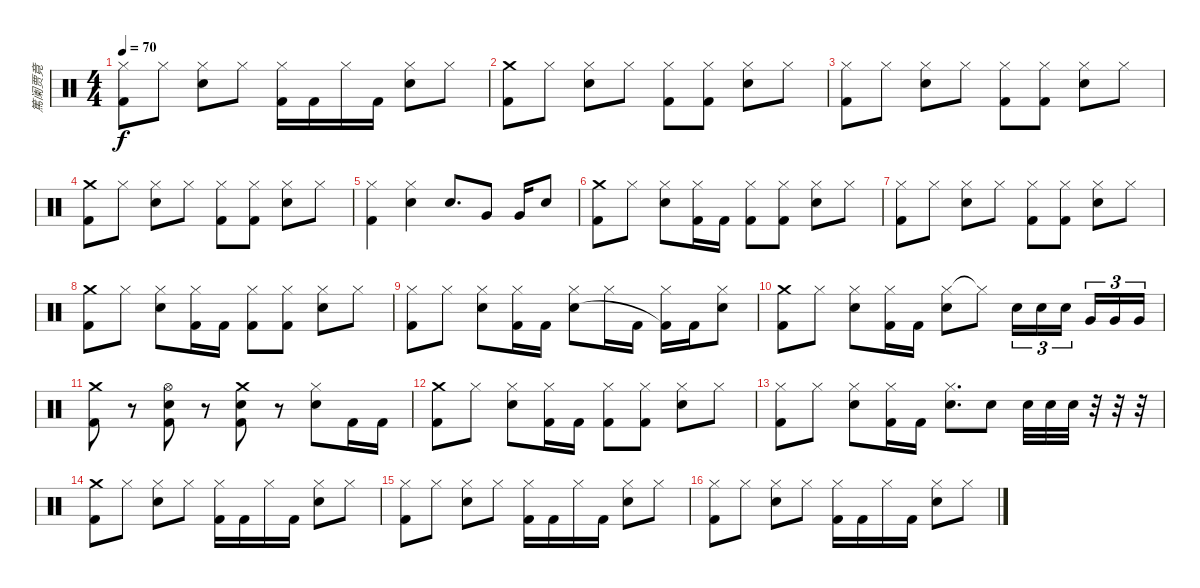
\track ("篤阑贾竟" "篤阑贾竟") {instrument percussion}
\staff {score}
\articulation defaults
\ts (4 4)
\tempo 70
\clef neutral
\ks c
("Hi-Hat (closed)" "Kick (hit) 2").8{dy f} "Hi-Hat (closed)".8 ("Hi-Hat (closed)" "Snare (hit) 2").8 "Hi-Hat (closed)".8 ("Hi-Hat (closed)" "Kick (hit) 2").16 "Kick (hit) 2".16 "Hi-Hat (closed)".16 "Kick (hit) 2".16 ("Hi-Hat (closed)" "Snare (hit) 2").8 "Hi-Hat (closed)".8 |
("Crash medium (hit)" "Kick (hit) 2").8 "Hi-Hat (closed)".8 ("Hi-Hat (closed)" "Snare (hit) 2").8 "Hi-Hat (closed)".8 ("Hi-Hat (closed)" "Kick (hit) 2").8 ("Hi-Hat (closed)" "Kick (hit) 2").8 ("Hi-Hat (closed)" "Snare (hit) 2").8 "Hi-Hat (closed)".8 |
("Hi-Hat (closed)" "Kick (hit) 2").8 "Hi-Hat (closed)".8 ("Hi-Hat (closed)" "Snare (hit) 2").8 "Hi-Hat (closed)".8 ("Hi-Hat (closed)" "Kick (hit) 2").8 ("Hi-Hat (closed)" "Kick (hit) 2").8 ("Hi-Hat (closed)" "Snare (hit) 2").8 "Hi-Hat (closed)".8 |
("Crash medium (hit)" "Kick (hit) 2").8 "Hi-Hat (closed)".8 ("Hi-Hat (closed)" "Snare (hit) 2").8 "Hi-Hat (closed)".8 ("Hi-Hat (closed)" "Kick (hit) 2").8 ("Hi-Hat (closed)" "Kick (hit) 2").8 ("Hi-Hat (closed)" "Snare (hit) 2").8 "Hi-Hat (closed)".8 |
("Hi-Hat (closed)" "Kick (hit) 2").4 ("Hi-Hat (closed)" "Snare (hit) 2").4 "Snare (hit) 2".8{d} "Very Low Tom (hit)".8 "Very Low Tom (hit)".16 "Snare (hit) 2".8 |
("Crash medium (hit)" "Kick (hit) 2").8 "Hi-Hat (closed)".8 ("Hi-Hat (closed)" "Snare (hit) 2").8 ("Hi-Hat (closed)" "Kick (hit) 2").16 "Kick (hit) 2".16 ("Hi-Hat (closed)" "Kick (hit) 2").8 ("Hi-Hat (closed)" "Kick (hit) 2").8 ("Hi-Hat (closed)" "Snare (hit) 2").8 "Hi-Hat (closed)".8 |
("Hi-Hat (closed)" "Kick (hit) 2").8 "Hi-Hat (closed)".8 ("Hi-Hat (closed)" "Snare (hit) 2").8 "Hi-Hat (closed)".8 ("Hi-Hat (closed)" "Kick (hit) 2").8 ("Hi-Hat (closed)" "Kick (hit) 2").8 ("Hi-Hat (closed)" "Snare (hit) 2").8 "Hi-Hat (closed)".8 |
("Crash medium (hit)" "Kick (hit) 2").8 "Hi-Hat (closed)".8 ("Hi-Hat (closed)" "Snare (hit) 2").8 ("Hi-Hat (closed)" "Kick (hit) 2").16 "Kick (hit) 2".16 ("Hi-Hat (closed)" "Kick (hit) 2").8 ("Hi-Hat (closed)" "Kick (hit) 2").8 ("Hi-Hat (closed)" "Snare (hit) 2").8 "Hi-Hat (closed)".8 |
("Hi-Hat (closed)" "Kick (hit) 2").8 "Hi-Hat (closed)".8 ("Hi-Hat (closed)" "Snare (hit) 2").8 ("Hi-Hat (closed)" "Kick (hit) 2").16 "Kick (hit) 2".16 ("Hi-Hat (closed)" "Snare (hit) 2").8 "Hi-Hat (closed)".16 "Kick (hit) 2".16 ("Hi-Hat (closed)" "Kick (hit) 2"{t}).16 "Kick (hit) 2".16 ("Hi-Hat (closed)" "Snare (hit) 2").8 |
("Crash medium (hit)" "Kick (hit) 2").8 "Hi-Hat (closed)".8 ("Hi-Hat (closed)" "Snare (hit) 2").8 ("Hi-Hat (closed)" "Kick (hit) 2").16 "Kick (hit) 2".16 ("Hi-Hat (closed)" "Snare (hit) 2").8 "Hi-Hat (closed)"{t}.8 "Snare (hit) 2".16{tu (3 2)} "Snare (hit) 2".16{tu (3 2)} "Snare (hit) 2".16{tu (3 2) beam splitsecondary} "Very Low Tom (hit)".16{tu (3 2)} "Very Low Tom (hit)".16{tu (3 2)} "Very Low Tom (hit)".16{tu (3 2)} |
("Crash medium (hit)" "Kick (hit) 2").8 r.8 ("Hi-Hat (open)" "Snare (hit) 2" "Kick (hit) 2").8 r.8 ("Crash medium (hit)" "Snare (hit) 2" "Kick (hit) 2").8 r.8 ("Hi-Hat (closed)" "Snare (hit) 2").8 "Kick (hit) 2".16 "Kick (hit) 2".16 |
("Crash medium (hit)" "Kick (hit) 2").8 "Hi-Hat (closed)".8 ("Hi-Hat (closed)" "Snare (hit) 2").8 ("Hi-Hat (closed)" "Kick (hit) 2").16 "Kick (hit) 2".16 ("Hi-Hat (closed)" "Kick (hit) 2").8 ("Hi-Hat (closed)" "Kick (hit) 2").8 ("Hi-Hat (closed)" "Snare (hit) 2").8 "Hi-Hat (closed)".8 |
("Hi-Hat (closed)" "Kick (hit) 2").8 "Hi-Hat (closed)".8 ("Hi-Hat (closed)" "Snare (hit) 2").8 ("Hi-Hat (closed)" "Kick (hit) 2").16 "Kick (hit) 2".16 ("Hi-Hat (closed)" "Snare (hit) 2").8{d} "Snare (hit) 2".8 "Snare (hit) 2".32 "Snare (hit) 2".32 "Snare (hit) 2".32 r.32 r.32 r.32 |
("Crash medium (hit)" "Kick (hit) 2").8 "Hi-Hat (closed)".8 ("Hi-Hat (closed)" "Snare (hit) 2").8 "Hi-Hat (closed)".8 ("Hi-Hat (closed)" "Kick (hit) 2").16 "Kick (hit) 2".16 "Hi-Hat (closed)".16 "Kick (hit) 2".16 ("Hi-Hat (closed)" "Snare (hit) 2").8 "Hi-Hat (closed)".8 |
("Hi-Hat (closed)" "Kick (hit) 2").8 "Hi-Hat (closed)".8 ("Hi-Hat (closed)" "Snare (hit) 2").8 "Hi-Hat (closed)".8 ("Hi-Hat (closed)" "Kick (hit) 2").16 "Kick (hit) 2".16 "Hi-Hat (closed)".16 "Kick (hit) 2".16 ("Hi-Hat (closed)" "Snare (hit) 2").8 "Hi-Hat (closed)".8 |
("Hi-Hat (closed)" "Kick (hit) 2").8 "Hi-Hat (closed)".8 ("Hi-Hat (closed)" "Snare (hit) 2").8 "Hi-Hat (closed)".8 ("Hi-Hat (closed)" "Kick (hit) 2").16 "Kick (hit) 2".16 "Hi-Hat (closed)".16 "Kick (hit) 2".16 ("Hi-Hat (closed)" "Snare (hit) 2").8 "Hi-Hat (closed)".8
